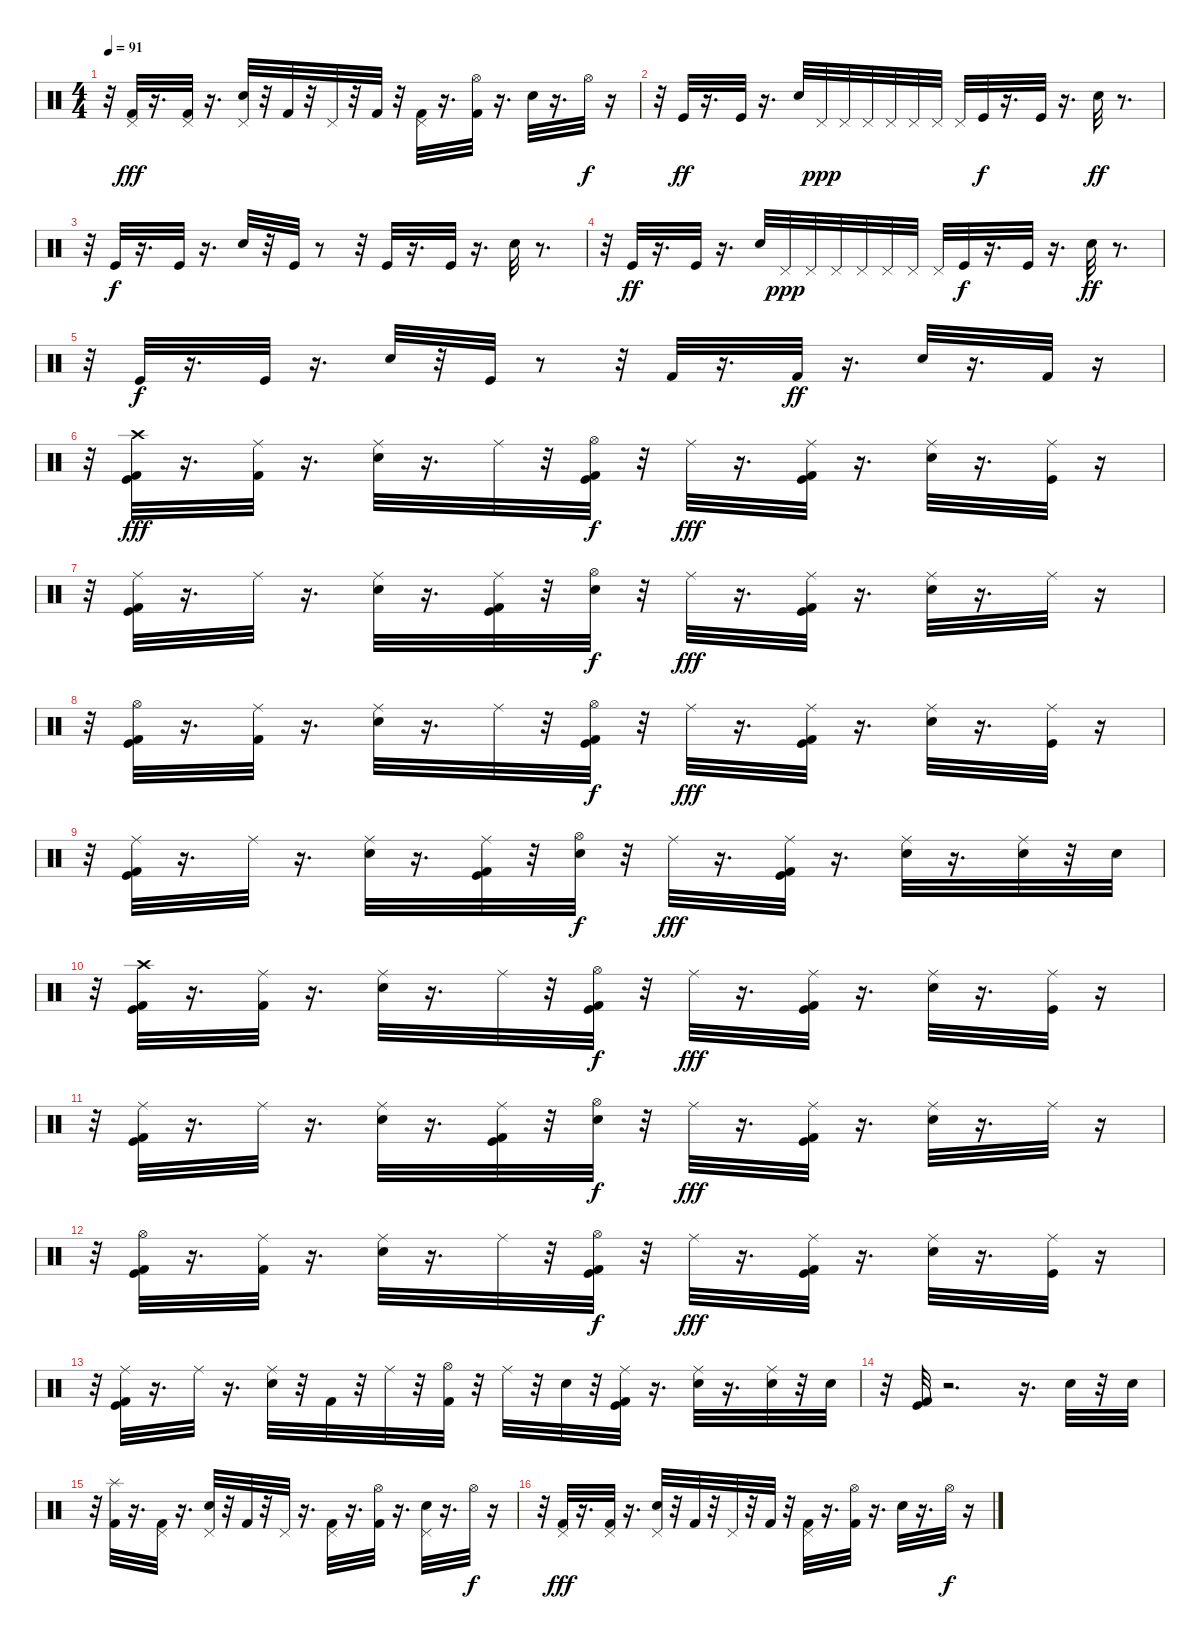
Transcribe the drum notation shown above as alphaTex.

\track "" {instrument percussion}
\staff {score}
\articulation defaults
\ts (4 4)
\tempo 91
\clef neutral
\ks c
r.32{dy f} ("Pedal Hi-Hat (hit)" "Kick (hit) 2").32{dy fff} r.16{d} ("Pedal Hi-Hat (hit)" "Kick (hit) 2").32 r.16{d} ("Pedal Hi-Hat (hit)" "Snare (hit) 2").32 r.32 "Kick (hit) 2".32 r.32 "Pedal Hi-Hat (hit)".32 r.32 "Kick (hit) 2".32 r.32 ("Pedal Hi-Hat (hit)" "Kick (hit) 2").32 r.16{d} ("Kick (hit) 2" "Hi-Hat (open)").32 r.16{d} "Snare (hit) 2".32 r.16{d} "Hi-Hat (open)".32{dy f} r.16 |
r.32 "Kick (hit)".32{dy ff} r.16{d} "Kick (hit)".32 r.16{d} "Electric Snare (hit)".32 "Pedal Hi-Hat (hit)".32{dy ppp} "Pedal Hi-Hat (hit)".32 "Pedal Hi-Hat (hit)".32 "Pedal Hi-Hat (hit)".32 "Pedal Hi-Hat (hit)".32 "Pedal Hi-Hat (hit)".32 "Pedal Hi-Hat (hit)".32 "Kick (hit)".32{dy f} r.16{d} "Kick (hit)".32 r.16{d} "Electric Snare (hit)".32{dy ff} r.8{d} |
r.32 "Kick (hit)".32{dy f} r.16{d} "Kick (hit)".32 r.16{d} "Electric Snare (hit)".32 r.32 "Kick (hit)".32 r.8 r.32 "Kick (hit)".32 r.16{d} "Kick (hit)".32 r.16{d} "Electric Snare (hit)".32 r.8{d} |
r.32 "Kick (hit)".32{dy ff} r.16{d} "Kick (hit)".32 r.16{d} "Electric Snare (hit)".32 "Pedal Hi-Hat (hit)".32{dy ppp} "Pedal Hi-Hat (hit)".32 "Pedal Hi-Hat (hit)".32 "Pedal Hi-Hat (hit)".32 "Pedal Hi-Hat (hit)".32 "Pedal Hi-Hat (hit)".32 "Pedal Hi-Hat (hit)".32 "Kick (hit)".32{dy f} r.16{d} "Kick (hit)".32 r.16{d} "Electric Snare (hit)".32{dy ff} r.8{d} |
r.32 "Kick (hit)".32{dy f} r.16{d} "Kick (hit)".32 r.16{d} "Electric Snare (hit)".32 r.32 "Kick (hit)".32 r.8 r.32 "Kick (hit) 2".32 r.16{d} "Kick (hit) 2".32{dy ff} r.16{d} "Electric Snare (hit)".32 r.16{d} "Kick (hit) 2".32 r.16 |
r.32 ("Crash high (hit)" "Kick (hit) 2" "Kick (hit)").32{dy fff} r.16{d} ("Kick (hit) 2" "Ride (middle)").32 r.16{d} ("Ride (middle)" "Snare (hit) 2").32 r.16{d} "Ride (middle)".32 r.32 ("Hi-Hat (open)" "Kick (hit) 2" "Kick (hit)").32{dy f} r.32 "Ride (middle)".32{dy fff} r.16{d} ("Ride (middle)" "Kick (hit)" "Kick (hit) 2").32 r.16{d} ("Ride (middle)" "Snare (hit) 2").32 r.16{d} ("Ride (middle)" "Kick (hit)").32 r.16 |
r.32 ("Ride (middle)" "Kick (hit)" "Kick (hit) 2").32 r.16{d} "Ride (middle)".32 r.16{d} ("Ride (middle)" "Snare (hit) 2").32 r.16{d} ("Ride (middle)" "Kick (hit)" "Kick (hit) 2").32 r.32 ("Hi-Hat (open)" "Snare (hit) 2").32{dy f} r.32 "Ride (middle)".32{dy fff} r.16{d} ("Ride (middle)" "Kick (hit)" "Kick (hit) 2").32 r.16{d} ("Ride (middle)" "Snare (hit) 2").32 r.16{d} "Ride (middle)".32 r.16 |
r.32 ("Hi-Hat (open)" "Kick (hit) 2" "Kick (hit)").32 r.16{d} ("Kick (hit) 2" "Ride (middle)").32 r.16{d} ("Ride (middle)" "Snare (hit) 2").32 r.16{d} "Ride (middle)".32 r.32 ("Hi-Hat (open)" "Kick (hit) 2" "Kick (hit)").32{dy f} r.32 "Ride (middle)".32{dy fff} r.16{d} ("Ride (middle)" "Kick (hit)" "Kick (hit) 2").32 r.16{d} ("Ride (middle)" "Snare (hit) 2").32 r.16{d} ("Ride (middle)" "Kick (hit)").32 r.16 |
r.32 ("Ride (middle)" "Kick (hit)" "Kick (hit) 2").32 r.16{d} "Ride (middle)".32 r.16{d} ("Ride (middle)" "Snare (hit) 2").32 r.16{d} ("Ride (middle)" "Kick (hit)" "Kick (hit) 2").32 r.32 ("Hi-Hat (open)" "Snare (hit) 2").32{dy f} r.32 "Ride (middle)".32{dy fff} r.16{d} ("Ride (middle)" "Kick (hit)" "Kick (hit) 2").32 r.16{d} ("Ride (middle)" "Snare (hit) 2").32 r.16{d} ("Snare (hit) 2" "Ride (middle)").32 r.32 "Snare (hit) 2".32 |
r.32 ("Crash high (hit)" "Kick (hit) 2" "Kick (hit)").32 r.16{d} ("Kick (hit) 2" "Ride (middle)").32 r.16{d} ("Ride (middle)" "Snare (hit) 2").32 r.16{d} "Ride (middle)".32 r.32 ("Hi-Hat (open)" "Kick (hit) 2" "Kick (hit)").32{dy f} r.32 "Ride (middle)".32{dy fff} r.16{d} ("Ride (middle)" "Kick (hit)" "Kick (hit) 2").32 r.16{d} ("Ride (middle)" "Snare (hit) 2").32 r.16{d} ("Ride (middle)" "Kick (hit)").32 r.16 |
r.32 ("Ride (middle)" "Kick (hit)" "Kick (hit) 2").32 r.16{d} "Ride (middle)".32 r.16{d} ("Ride (middle)" "Snare (hit) 2").32 r.16{d} ("Ride (middle)" "Kick (hit)" "Kick (hit) 2").32 r.32 ("Hi-Hat (open)" "Snare (hit) 2").32{dy f} r.32 "Ride (middle)".32{dy fff} r.16{d} ("Ride (middle)" "Kick (hit)" "Kick (hit) 2").32 r.16{d} ("Ride (middle)" "Snare (hit) 2").32 r.16{d} "Ride (middle)".32 r.16 |
r.32 ("Hi-Hat (open)" "Kick (hit) 2" "Kick (hit)").32 r.16{d} ("Kick (hit) 2" "Ride (middle)").32 r.16{d} ("Ride (middle)" "Snare (hit) 2").32 r.16{d} "Ride (middle)".32 r.32 ("Hi-Hat (open)" "Kick (hit) 2" "Kick (hit)").32{dy f} r.32 "Ride (middle)".32{dy fff} r.16{d} ("Ride (middle)" "Kick (hit)" "Kick (hit) 2").32 r.16{d} ("Ride (middle)" "Snare (hit) 2").32 r.16{d} ("Ride (middle)" "Kick (hit)").32 r.16 |
r.32 ("Ride (middle)" "Kick (hit)" "Kick (hit) 2").32 r.16{d} "Ride (middle)".32 r.16{d} ("Ride (middle)" "Snare (hit) 2").32 r.32 "Kick (hit) 2".32 r.32 "Ride (middle)".32 r.32 ("Hi-Hat (open)" "Kick (hit) 2").32 r.32 "Ride (middle)".32 r.32 "Snare (hit) 2".32 r.32 ("Ride (middle)" "Kick (hit)" "Kick (hit) 2").32 r.16{d} ("Ride (middle)" "Snare (hit) 2").32 r.16{d} ("Snare (hit) 2" "Ride (middle)").32 r.32 "Snare (hit) 2".32 |
r.32 ("Kick (hit) 2" "Kick (hit)").32 r.2{d} r.16{d} "Snare (hit) 2".32 r.32 "Snare (hit) 2".32 |
r.32 ("Splash (hit)" "Kick (hit) 2").32 r.16{d} ("Kick (hit) 2" "Pedal Hi-Hat (hit)").32 r.16{d} ("Pedal Hi-Hat (hit)" "Snare (hit) 2").32 r.32 "Kick (hit) 2".32 r.32 "Pedal Hi-Hat (hit)".32 r.16{d} ("Pedal Hi-Hat (hit)" "Kick (hit) 2").32 r.16{d} ("Kick (hit) 2" "Hi-Hat (open)").32 r.16{d} ("Pedal Hi-Hat (hit)" "Snare (hit) 2").32 r.16{d} "Hi-Hat (open)".32{dy f} r.16 |
r.32 ("Pedal Hi-Hat (hit)" "Kick (hit) 2").32{dy fff} r.16{d} ("Pedal Hi-Hat (hit)" "Kick (hit) 2").32 r.16{d} ("Pedal Hi-Hat (hit)" "Snare (hit) 2").32 r.32 "Kick (hit) 2".32 r.32 "Pedal Hi-Hat (hit)".32 r.32 "Kick (hit) 2".32 r.32 ("Pedal Hi-Hat (hit)" "Kick (hit) 2").32 r.16{d} ("Kick (hit) 2" "Hi-Hat (open)").32 r.16{d} "Snare (hit) 2".32 r.16{d} "Hi-Hat (open)".32{dy f} r.16
